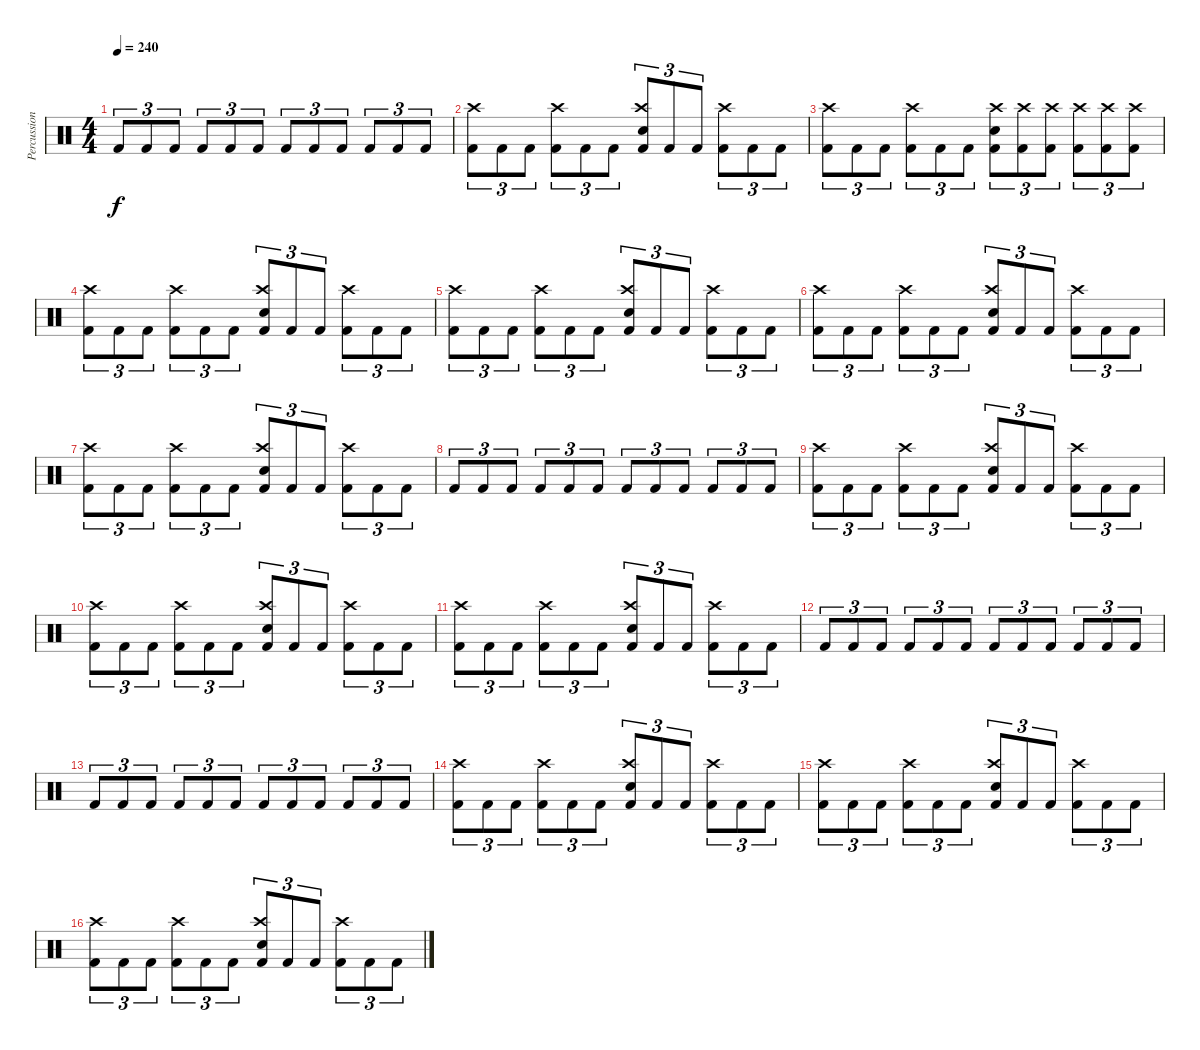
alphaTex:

\track ("Percussion" "Percussion") {instrument percussion}
\staff {score}
\articulation defaults
\ts (4 4)
\tempo 240
\clef neutral
\ks c "Kick (hit) 2".8{tu (3 2) dy f} "Kick (hit) 2".8{tu (3 2)} "Kick (hit) 2".8{tu (3 2)} "Kick (hit) 2".8{tu (3 2)} "Kick (hit) 2".8{tu (3 2)} "Kick (hit) 2".8{tu (3 2)} "Kick (hit) 2".8{tu (3 2)} "Kick (hit) 2".8{tu (3 2)} "Kick (hit) 2".8{tu (3 2)} "Kick (hit) 2".8{tu (3 2)} "Kick (hit) 2".8{tu (3 2)} "Kick (hit) 2".8{tu (3 2)}
|
("Kick (hit) 2" "Crash high (hit)").8{tu (3 2)} "Kick (hit) 2".8{tu (3 2)} "Kick (hit) 2".8{tu (3 2)} ("Kick (hit) 2" "Crash high (hit)").8{tu (3 2)} "Kick (hit) 2".8{tu (3 2)} "Kick (hit) 2".8{tu (3 2)} ("Kick (hit) 2" "Crash high (hit)" "Electric Snare (hit)").8{tu (3 2)} "Kick (hit) 2".8{tu (3 2)} "Kick (hit) 2".8{tu (3 2)} ("Kick (hit) 2" "Crash high (hit)").8{tu (3 2)} "Kick (hit) 2".8{tu (3 2)} "Kick (hit) 2".8{tu (3 2)} |
("Kick (hit) 2" "Crash high (hit)").8{tu (3 2)} "Kick (hit) 2".8{tu (3 2)} "Kick (hit) 2".8{tu (3 2)} ("Kick (hit) 2" "Crash high (hit)").8{tu (3 2)} "Kick (hit) 2".8{tu (3 2)} "Kick (hit) 2".8{tu (3 2)} ("Kick (hit) 2" "Crash high (hit)" "Electric Snare (hit)").8{tu (3 2)} ("Kick (hit) 2" "Crash high (hit)").8{tu (3 2)} ("Kick (hit) 2" "Crash high (hit)").8{tu (3 2)} ("Kick (hit) 2" "Crash high (hit)").8{tu (3 2)} ("Kick (hit) 2" "Crash high (hit)").8{tu (3 2)} ("Kick (hit) 2" "Crash high (hit)").8{tu (3 2)} |
("Kick (hit) 2" "Crash high (hit)").8{tu (3 2)} "Kick (hit) 2".8{tu (3 2)} "Kick (hit) 2".8{tu (3 2)} ("Kick (hit) 2" "Crash high (hit)").8{tu (3 2)} "Kick (hit) 2".8{tu (3 2)} "Kick (hit) 2".8{tu (3 2)} ("Kick (hit) 2" "Crash high (hit)" "Electric Snare (hit)").8{tu (3 2)} "Kick (hit) 2".8{tu (3 2)} "Kick (hit) 2".8{tu (3 2)} ("Kick (hit) 2" "Crash high (hit)").8{tu (3 2)} "Kick (hit) 2".8{tu (3 2)} "Kick (hit) 2".8{tu (3 2)} |
("Kick (hit) 2" "Crash high (hit)").8{tu (3 2)} "Kick (hit) 2".8{tu (3 2)} "Kick (hit) 2".8{tu (3 2)} ("Kick (hit) 2" "Crash high (hit)").8{tu (3 2)} "Kick (hit) 2".8{tu (3 2)} "Kick (hit) 2".8{tu (3 2)} ("Kick (hit) 2" "Crash high (hit)" "Electric Snare (hit)").8{tu (3 2)} "Kick (hit) 2".8{tu (3 2)} "Kick (hit) 2".8{tu (3 2)} ("Kick (hit) 2" "Crash high (hit)").8{tu (3 2)} "Kick (hit) 2".8{tu (3 2)} "Kick (hit) 2".8{tu (3 2)} |
("Kick (hit) 2" "Crash high (hit)").8{tu (3 2)} "Kick (hit) 2".8{tu (3 2)} "Kick (hit) 2".8{tu (3 2)} ("Kick (hit) 2" "Crash high (hit)").8{tu (3 2)} "Kick (hit) 2".8{tu (3 2)} "Kick (hit) 2".8{tu (3 2)} ("Kick (hit) 2" "Crash high (hit)" "Electric Snare (hit)").8{tu (3 2)} "Kick (hit) 2".8{tu (3 2)} "Kick (hit) 2".8{tu (3 2)} ("Kick (hit) 2" "Crash high (hit)").8{tu (3 2)} "Kick (hit) 2".8{tu (3 2)} "Kick (hit) 2".8{tu (3 2)} |
("Kick (hit) 2" "Crash high (hit)").8{tu (3 2)} "Kick (hit) 2".8{tu (3 2)} "Kick (hit) 2".8{tu (3 2)} ("Kick (hit) 2" "Crash high (hit)").8{tu (3 2)} "Kick (hit) 2".8{tu (3 2)} "Kick (hit) 2".8{tu (3 2)} ("Kick (hit) 2" "Crash high (hit)" "Electric Snare (hit)").8{tu (3 2)} "Kick (hit) 2".8{tu (3 2)} "Kick (hit) 2".8{tu (3 2)} ("Kick (hit) 2" "Crash high (hit)").8{tu (3 2)} "Kick (hit) 2".8{tu (3 2)} "Kick (hit) 2".8{tu (3 2)} |
"Kick (hit) 2".8{tu (3 2)} "Kick (hit) 2".8{tu (3 2)} "Kick (hit) 2".8{tu (3 2)} "Kick (hit) 2".8{tu (3 2)} "Kick (hit) 2".8{tu (3 2)} "Kick (hit) 2".8{tu (3 2)} "Kick (hit) 2".8{tu (3 2)} "Kick (hit) 2".8{tu (3 2)} "Kick (hit) 2".8{tu (3 2)} "Kick (hit) 2".8{tu (3 2)} "Kick (hit) 2".8{tu (3 2)} "Kick (hit) 2".8{tu (3 2)} |
("Kick (hit) 2" "Crash high (hit)").8{tu (3 2)} "Kick (hit) 2".8{tu (3 2)} "Kick (hit) 2".8{tu (3 2)} ("Kick (hit) 2" "Crash high (hit)").8{tu (3 2)} "Kick (hit) 2".8{tu (3 2)} "Kick (hit) 2".8{tu (3 2)} ("Kick (hit) 2" "Crash high (hit)" "Electric Snare (hit)").8{tu (3 2)} "Kick (hit) 2".8{tu (3 2)} "Kick (hit) 2".8{tu (3 2)} ("Kick (hit) 2" "Crash high (hit)").8{tu (3 2)} "Kick (hit) 2".8{tu (3 2)} "Kick (hit) 2".8{tu (3 2)} |
("Kick (hit) 2" "Crash high (hit)").8{tu (3 2)} "Kick (hit) 2".8{tu (3 2)} "Kick (hit) 2".8{tu (3 2)} ("Kick (hit) 2" "Crash high (hit)").8{tu (3 2)} "Kick (hit) 2".8{tu (3 2)} "Kick (hit) 2".8{tu (3 2)} ("Kick (hit) 2" "Crash high (hit)" "Electric Snare (hit)").8{tu (3 2)} "Kick (hit) 2".8{tu (3 2)} "Kick (hit) 2".8{tu (3 2)} ("Kick (hit) 2" "Crash high (hit)").8{tu (3 2)} "Kick (hit) 2".8{tu (3 2)} "Kick (hit) 2".8{tu (3 2)} |
("Kick (hit) 2" "Crash high (hit)").8{tu (3 2)} "Kick (hit) 2".8{tu (3 2)} "Kick (hit) 2".8{tu (3 2)} ("Kick (hit) 2" "Crash high (hit)").8{tu (3 2)} "Kick (hit) 2".8{tu (3 2)} "Kick (hit) 2".8{tu (3 2)} ("Kick (hit) 2" "Crash high (hit)" "Electric Snare (hit)").8{tu (3 2)} "Kick (hit) 2".8{tu (3 2)} "Kick (hit) 2".8{tu (3 2)} ("Kick (hit) 2" "Crash high (hit)").8{tu (3 2)} "Kick (hit) 2".8{tu (3 2)} "Kick (hit) 2".8{tu (3 2)} |
"Kick (hit) 2".8{tu (3 2)} "Kick (hit) 2".8{tu (3 2)} "Kick (hit) 2".8{tu (3 2)} "Kick (hit) 2".8{tu (3 2)} "Kick (hit) 2".8{tu (3 2)} "Kick (hit) 2".8{tu (3 2)} "Kick (hit) 2".8{tu (3 2)} "Kick (hit) 2".8{tu (3 2)} "Kick (hit) 2".8{tu (3 2)} "Kick (hit) 2".8{tu (3 2)} "Kick (hit) 2".8{tu (3 2)} "Kick (hit) 2".8{tu (3 2)} |
"Kick (hit) 2".8{tu (3 2)} "Kick (hit) 2".8{tu (3 2)} "Kick (hit) 2".8{tu (3 2)} "Kick (hit) 2".8{tu (3 2)} "Kick (hit) 2".8{tu (3 2)} "Kick (hit) 2".8{tu (3 2)} "Kick (hit) 2".8{tu (3 2)} "Kick (hit) 2".8{tu (3 2)} "Kick (hit) 2".8{tu (3 2)} "Kick (hit) 2".8{tu (3 2)} "Kick (hit) 2".8{tu (3 2)} "Kick (hit) 2".8{tu (3 2)} |
("Kick (hit) 2" "Crash high (hit)").8{tu (3 2)} "Kick (hit) 2".8{tu (3 2)} "Kick (hit) 2".8{tu (3 2)} ("Kick (hit) 2" "Crash high (hit)").8{tu (3 2)} "Kick (hit) 2".8{tu (3 2)} "Kick (hit) 2".8{tu (3 2)} ("Kick (hit) 2" "Crash high (hit)" "Electric Snare (hit)").8{tu (3 2)} "Kick (hit) 2".8{tu (3 2)} "Kick (hit) 2".8{tu (3 2)} ("Kick (hit) 2" "Crash high (hit)").8{tu (3 2)} "Kick (hit) 2".8{tu (3 2)} "Kick (hit) 2".8{tu (3 2)} |
("Kick (hit) 2" "Crash high (hit)").8{tu (3 2)} "Kick (hit) 2".8{tu (3 2)} "Kick (hit) 2".8{tu (3 2)} ("Kick (hit) 2" "Crash high (hit)").8{tu (3 2)} "Kick (hit) 2".8{tu (3 2)} "Kick (hit) 2".8{tu (3 2)} ("Kick (hit) 2" "Crash high (hit)" "Electric Snare (hit)").8{tu (3 2)} "Kick (hit) 2".8{tu (3 2)} "Kick (hit) 2".8{tu (3 2)} ("Kick (hit) 2" "Crash high (hit)").8{tu (3 2)} "Kick (hit) 2".8{tu (3 2)} "Kick (hit) 2".8{tu (3 2)} |
("Kick (hit) 2" "Crash high (hit)").8{tu (3 2)} "Kick (hit) 2".8{tu (3 2)} "Kick (hit) 2".8{tu (3 2)} ("Kick (hit) 2" "Crash high (hit)").8{tu (3 2)} "Kick (hit) 2".8{tu (3 2)} "Kick (hit) 2".8{tu (3 2)} ("Kick (hit) 2" "Crash high (hit)" "Electric Snare (hit)").8{tu (3 2)} "Kick (hit) 2".8{tu (3 2)} "Kick (hit) 2".8{tu (3 2)} ("Kick (hit) 2" "Crash high (hit)").8{tu (3 2)} "Kick (hit) 2".8{tu (3 2)} "Kick (hit) 2".8{tu (3 2)}
